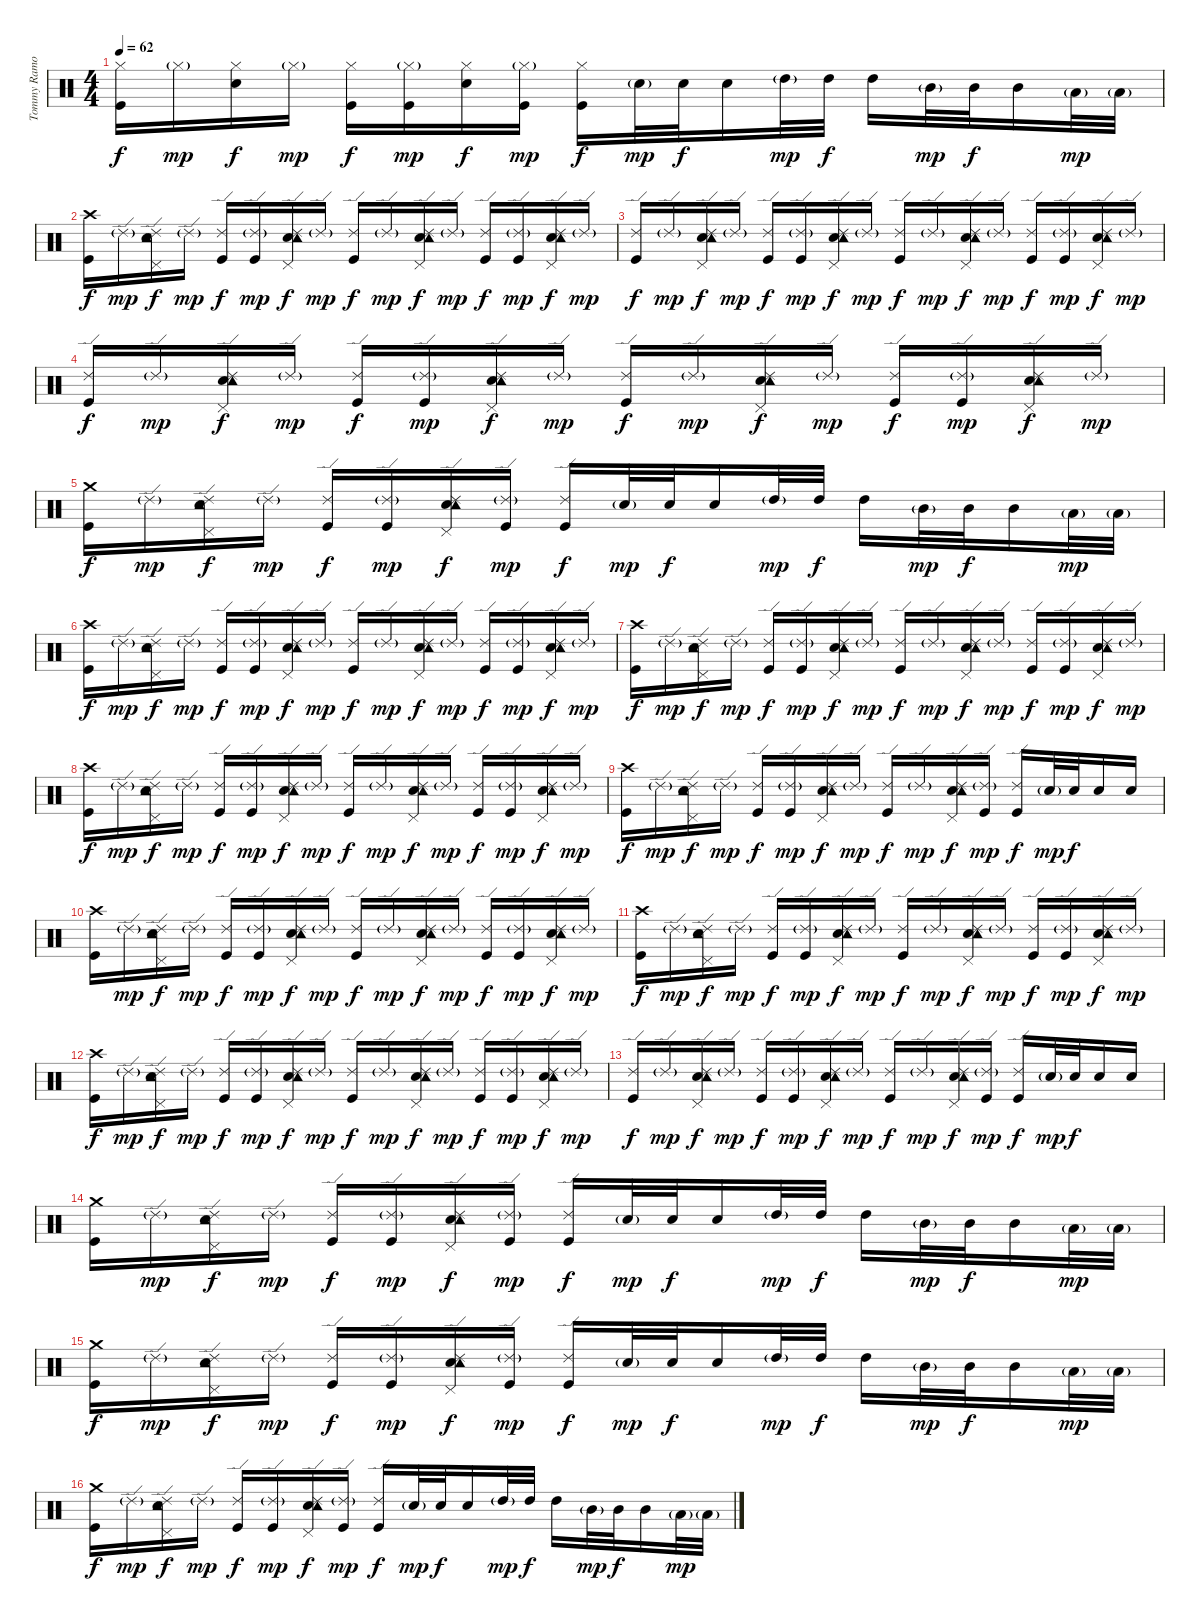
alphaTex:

\track ("Tommy Ramone" "Tommy Ramo") {instrument percussion}
\staff {score}
\articulation defaults
\ts (4 4)
\tempo 62
\clef neutral
\ks c
("Hi-Hat (closed)" "Kick (hit)").16{dy f} "Hi-Hat (closed)"{g}.16{dy mp} ("Hi-Hat (closed)" "Snare (hit) 2").16{dy f} "Hi-Hat (closed)"{g}.16{dy mp} ("Hi-Hat (closed)" "Kick (hit)").16{dy f} ("Hi-Hat (closed)"{g} "Kick (hit)").16{dy mp} ("Hi-Hat (closed)" "Snare (hit) 2").16{dy f} ("Hi-Hat (closed)"{g} "Kick (hit)").16{dy mp} ("Hi-Hat (closed)" "Kick (hit)").16{dy f} "Snare (hit) 2"{g}.32{dy mp} "Snare (hit) 2".32{dy f} "Snare (hit) 2".16 "High Tom (hit)"{g}.32{dy mp} "High Tom (hit)".32{dy f} "High Tom (hit)".16 "Mid Tom (hit)"{g}.32{dy mp} "Mid Tom (hit)".32{dy f} "Mid Tom (hit)".16 "Low Tom (hit)"{g}.32{dy mp} "Low Tom (hit)"{g}.32 |
("Crash high (hit)" "Kick (hit)").16{dy f} "Ride (edge) 2"{g}.16{dy mp} ("Ride (edge) 2" "Snare (hit) 2" "Pedal Hi-Hat (hit)" "Tambourine (hit)").16{dy f} "Ride (edge) 2"{g}.16{dy mp} ("Ride (edge) 2" "Kick (hit)").16{dy f} ("Ride (edge) 2"{g} "Kick (hit)").16{dy mp} ("Ride (edge) 2" "Snare (hit) 2" "Pedal Hi-Hat (hit)" "Tambourine (hit)").16{dy f} "Ride (edge) 2"{g}.16{dy mp} ("Ride (edge) 2" "Kick (hit)").16{dy f} "Ride (edge) 2"{g}.16{dy mp} ("Ride (edge) 2" "Snare (hit) 2" "Pedal Hi-Hat (hit)" "Tambourine (hit)").16{dy f} "Ride (edge) 2"{g}.16{dy mp} ("Ride (edge) 2" "Kick (hit)").16{dy f} ("Ride (edge) 2"{g} "Kick (hit)").16{dy mp} ("Ride (edge) 2" "Snare (hit) 2" "Pedal Hi-Hat (hit)" "Tambourine (hit)").16{dy f} "Ride (edge) 2"{g}.16{dy mp} |
("Ride (edge) 2" "Kick (hit)").16{dy f} "Ride (edge) 2"{g}.16{dy mp} ("Ride (edge) 2" "Snare (hit) 2" "Pedal Hi-Hat (hit)" "Tambourine (hit)").16{dy f} "Ride (edge) 2"{g}.16{dy mp} ("Ride (edge) 2" "Kick (hit)").16{dy f} ("Ride (edge) 2"{g} "Kick (hit)").16{dy mp} ("Ride (edge) 2" "Snare (hit) 2" "Pedal Hi-Hat (hit)" "Tambourine (hit)").16{dy f} "Ride (edge) 2"{g}.16{dy mp} ("Ride (edge) 2" "Kick (hit)").16{dy f} "Ride (edge) 2"{g}.16{dy mp} ("Ride (edge) 2" "Snare (hit) 2" "Pedal Hi-Hat (hit)" "Tambourine (hit)").16{dy f} "Ride (edge) 2"{g}.16{dy mp} ("Ride (edge) 2" "Kick (hit)").16{dy f} ("Ride (edge) 2"{g} "Kick (hit)").16{dy mp} ("Ride (edge) 2" "Snare (hit) 2" "Pedal Hi-Hat (hit)" "Tambourine (hit)").16{dy f} "Ride (edge) 2"{g}.16{dy mp} |
("Ride (edge) 2" "Kick (hit)").16{dy f} "Ride (edge) 2"{g}.16{dy mp} ("Ride (edge) 2" "Snare (hit) 2" "Pedal Hi-Hat (hit)" "Tambourine (hit)").16{dy f} "Ride (edge) 2"{g}.16{dy mp} ("Ride (edge) 2" "Kick (hit)").16{dy f} ("Ride (edge) 2"{g} "Kick (hit)").16{dy mp} ("Ride (edge) 2" "Snare (hit) 2" "Pedal Hi-Hat (hit)" "Tambourine (hit)").16{dy f} "Ride (edge) 2"{g}.16{dy mp} ("Ride (edge) 2" "Kick (hit)").16{dy f} "Ride (edge) 2"{g}.16{dy mp} ("Ride (edge) 2" "Snare (hit) 2" "Pedal Hi-Hat (hit)" "Tambourine (hit)").16{dy f} "Ride (edge) 2"{g}.16{dy mp} ("Ride (edge) 2" "Kick (hit)").16{dy f} ("Ride (edge) 2"{g} "Kick (hit)").16{dy mp} ("Ride (edge) 2" "Snare (hit) 2" "Pedal Hi-Hat (hit)" "Tambourine (hit)").16{dy f} "Ride (edge) 2"{g}.16{dy mp} |
("Crash medium (hit)" "Kick (hit)").16{dy f} "Ride (edge) 2"{g}.16{dy mp} ("Ride (edge) 2" "Snare (hit) 2" "Pedal Hi-Hat (hit)" "Tambourine (hit)").16{dy f} "Ride (edge) 2"{g}.16{dy mp} ("Ride (edge) 2" "Kick (hit)").16{dy f} ("Ride (edge) 2"{g} "Kick (hit)").16{dy mp} ("Ride (edge) 2" "Snare (hit) 2" "Pedal Hi-Hat (hit)" "Tambourine (hit)").16{dy f} ("Ride (edge) 2"{g} "Kick (hit)").16{dy mp} ("Ride (edge) 2" "Kick (hit)").16{dy f} "Snare (hit) 2"{g}.32{dy mp} "Snare (hit) 2".32{dy f} "Snare (hit) 2".16 "High Tom (hit)"{g}.32{dy mp} "High Tom (hit)".32{dy f} "High Tom (hit)".16 "Mid Tom (hit)"{g}.32{dy mp} "Mid Tom (hit)".32{dy f} "Mid Tom (hit)".16 "Low Tom (hit)"{g}.32{dy mp} "Low Tom (hit)"{g}.32 |
("Crash high (hit)" "Kick (hit)").16{dy f} "Ride (edge) 2"{g}.16{dy mp} ("Ride (edge) 2" "Snare (hit) 2" "Pedal Hi-Hat (hit)" "Tambourine (hit)").16{dy f} "Ride (edge) 2"{g}.16{dy mp} ("Ride (edge) 2" "Kick (hit)").16{dy f} ("Ride (edge) 2"{g} "Kick (hit)").16{dy mp} ("Ride (edge) 2" "Snare (hit) 2" "Pedal Hi-Hat (hit)" "Tambourine (hit)").16{dy f} "Ride (edge) 2"{g}.16{dy mp} ("Ride (edge) 2" "Kick (hit)").16{dy f} "Ride (edge) 2"{g}.16{dy mp} ("Ride (edge) 2" "Snare (hit) 2" "Pedal Hi-Hat (hit)" "Tambourine (hit)").16{dy f} "Ride (edge) 2"{g}.16{dy mp} ("Ride (edge) 2" "Kick (hit)").16{dy f} ("Ride (edge) 2"{g} "Kick (hit)").16{dy mp} ("Ride (edge) 2" "Snare (hit) 2" "Pedal Hi-Hat (hit)" "Tambourine (hit)").16{dy f} "Ride (edge) 2"{g}.16{dy mp} |
("Crash high (hit)" "Kick (hit)").16{dy f} "Ride (edge) 2"{g}.16{dy mp} ("Ride (edge) 2" "Snare (hit) 2" "Pedal Hi-Hat (hit)" "Tambourine (hit)").16{dy f} "Ride (edge) 2"{g}.16{dy mp} ("Ride (edge) 2" "Kick (hit)").16{dy f} ("Ride (edge) 2"{g} "Kick (hit)").16{dy mp} ("Ride (edge) 2" "Snare (hit) 2" "Pedal Hi-Hat (hit)" "Tambourine (hit)").16{dy f} "Ride (edge) 2"{g}.16{dy mp} ("Ride (edge) 2" "Kick (hit)").16{dy f} "Ride (edge) 2"{g}.16{dy mp} ("Ride (edge) 2" "Snare (hit) 2" "Pedal Hi-Hat (hit)" "Tambourine (hit)").16{dy f} "Ride (edge) 2"{g}.16{dy mp} ("Ride (edge) 2" "Kick (hit)").16{dy f} ("Ride (edge) 2"{g} "Kick (hit)").16{dy mp} ("Ride (edge) 2" "Snare (hit) 2" "Pedal Hi-Hat (hit)" "Tambourine (hit)").16{dy f} "Ride (edge) 2"{g}.16{dy mp} |
("Crash high (hit)" "Kick (hit)").16{dy f} "Ride (edge) 2"{g}.16{dy mp} ("Ride (edge) 2" "Snare (hit) 2" "Pedal Hi-Hat (hit)" "Tambourine (hit)").16{dy f} "Ride (edge) 2"{g}.16{dy mp} ("Ride (edge) 2" "Kick (hit)").16{dy f} ("Ride (edge) 2"{g} "Kick (hit)").16{dy mp} ("Ride (edge) 2" "Snare (hit) 2" "Pedal Hi-Hat (hit)" "Tambourine (hit)").16{dy f} "Ride (edge) 2"{g}.16{dy mp} ("Ride (edge) 2" "Kick (hit)").16{dy f} "Ride (edge) 2"{g}.16{dy mp} ("Ride (edge) 2" "Snare (hit) 2" "Pedal Hi-Hat (hit)" "Tambourine (hit)").16{dy f} "Ride (edge) 2"{g}.16{dy mp} ("Ride (edge) 2" "Kick (hit)").16{dy f} ("Ride (edge) 2"{g} "Kick (hit)").16{dy mp} ("Ride (edge) 2" "Snare (hit) 2" "Pedal Hi-Hat (hit)" "Tambourine (hit)").16{dy f} "Ride (edge) 2"{g}.16{dy mp} |
("Crash high (hit)" "Kick (hit)").16{dy f} "Ride (edge) 2"{g}.16{dy mp} ("Ride (edge) 2" "Snare (hit) 2" "Pedal Hi-Hat (hit)" "Tambourine (hit)").16{dy f} "Ride (edge) 2"{g}.16{dy mp} ("Ride (edge) 2" "Kick (hit)").16{dy f} ("Ride (edge) 2"{g} "Kick (hit)").16{dy mp} ("Ride (edge) 2" "Snare (hit) 2" "Pedal Hi-Hat (hit)" "Tambourine (hit)").16{dy f} "Ride (edge) 2"{g}.16{dy mp} ("Ride (edge) 2" "Kick (hit)").16{dy f} "Ride (edge) 2"{g}.16{dy mp} ("Ride (edge) 2" "Snare (hit) 2" "Pedal Hi-Hat (hit)" "Tambourine (hit)").16{dy f} ("Ride (edge) 2"{g} "Kick (hit)").16{dy mp} ("Ride (edge) 2" "Kick (hit)").16{dy f} "Snare (hit) 2"{g}.32{dy mp} "Snare (hit) 2".32{dy f} "Snare (hit) 2".16 "Snare (hit) 2".16 |
("Crash high (hit)" "Kick (hit)").16 "Ride (edge) 2"{g}.16{dy mp} ("Ride (edge) 2" "Snare (hit) 2" "Pedal Hi-Hat (hit)" "Tambourine (hit)").16{dy f} "Ride (edge) 2"{g}.16{dy mp} ("Ride (edge) 2" "Kick (hit)").16{dy f} ("Ride (edge) 2"{g} "Kick (hit)").16{dy mp} ("Ride (edge) 2" "Snare (hit) 2" "Pedal Hi-Hat (hit)" "Tambourine (hit)").16{dy f} "Ride (edge) 2"{g}.16{dy mp} ("Ride (edge) 2" "Kick (hit)").16{dy f} "Ride (edge) 2"{g}.16{dy mp} ("Ride (edge) 2" "Snare (hit) 2" "Pedal Hi-Hat (hit)" "Tambourine (hit)").16{dy f} "Ride (edge) 2"{g}.16{dy mp} ("Ride (edge) 2" "Kick (hit)").16{dy f} ("Ride (edge) 2"{g} "Kick (hit)").16{dy mp} ("Ride (edge) 2" "Snare (hit) 2" "Pedal Hi-Hat (hit)" "Tambourine (hit)").16{dy f} "Ride (edge) 2"{g}.16{dy mp} |
("Crash high (hit)" "Kick (hit)").16{dy f} "Ride (edge) 2"{g}.16{dy mp} ("Ride (edge) 2" "Snare (hit) 2" "Pedal Hi-Hat (hit)" "Tambourine (hit)").16{dy f} "Ride (edge) 2"{g}.16{dy mp} ("Ride (edge) 2" "Kick (hit)").16{dy f} ("Ride (edge) 2"{g} "Kick (hit)").16{dy mp} ("Ride (edge) 2" "Snare (hit) 2" "Pedal Hi-Hat (hit)" "Tambourine (hit)").16{dy f} "Ride (edge) 2"{g}.16{dy mp} ("Ride (edge) 2" "Kick (hit)").16{dy f} "Ride (edge) 2"{g}.16{dy mp} ("Ride (edge) 2" "Snare (hit) 2" "Pedal Hi-Hat (hit)" "Tambourine (hit)").16{dy f} "Ride (edge) 2"{g}.16{dy mp} ("Ride (edge) 2" "Kick (hit)").16{dy f} ("Ride (edge) 2"{g} "Kick (hit)").16{dy mp} ("Ride (edge) 2" "Snare (hit) 2" "Pedal Hi-Hat (hit)" "Tambourine (hit)").16{dy f} "Ride (edge) 2"{g}.16{dy mp} |
("Crash high (hit)" "Kick (hit)").16{dy f} "Ride (edge) 2"{g}.16{dy mp} ("Ride (edge) 2" "Snare (hit) 2" "Pedal Hi-Hat (hit)" "Tambourine (hit)").16{dy f} "Ride (edge) 2"{g}.16{dy mp} ("Ride (edge) 2" "Kick (hit)").16{dy f} ("Ride (edge) 2"{g} "Kick (hit)").16{dy mp} ("Ride (edge) 2" "Snare (hit) 2" "Pedal Hi-Hat (hit)" "Tambourine (hit)").16{dy f} "Ride (edge) 2"{g}.16{dy mp} ("Ride (edge) 2" "Kick (hit)").16{dy f} "Ride (edge) 2"{g}.16{dy mp} ("Ride (edge) 2" "Snare (hit) 2" "Pedal Hi-Hat (hit)" "Tambourine (hit)").16{dy f} "Ride (edge) 2"{g}.16{dy mp} ("Ride (edge) 2" "Kick (hit)").16{dy f} ("Ride (edge) 2"{g} "Kick (hit)").16{dy mp} ("Ride (edge) 2" "Snare (hit) 2" "Pedal Hi-Hat (hit)" "Tambourine (hit)").16{dy f} "Ride (edge) 2"{g}.16{dy mp} |
("Ride (edge) 2" "Kick (hit)").16{dy f} "Ride (edge) 2"{g}.16{dy mp} ("Ride (edge) 2" "Snare (hit) 2" "Pedal Hi-Hat (hit)" "Tambourine (hit)").16{dy f} "Ride (edge) 2"{g}.16{dy mp} ("Ride (edge) 2" "Kick (hit)").16{dy f} ("Ride (edge) 2"{g} "Kick (hit)").16{dy mp} ("Ride (edge) 2" "Snare (hit) 2" "Pedal Hi-Hat (hit)" "Tambourine (hit)").16{dy f} "Ride (edge) 2"{g}.16{dy mp} ("Ride (edge) 2" "Kick (hit)").16{dy f} "Ride (edge) 2"{g}.16{dy mp} ("Ride (edge) 2" "Snare (hit) 2" "Pedal Hi-Hat (hit)" "Tambourine (hit)").16{dy f} ("Ride (edge) 2"{g} "Kick (hit)").16{dy mp} ("Ride (edge) 2" "Kick (hit)").16{dy f} "Snare (hit) 2"{g}.32{dy mp} "Snare (hit) 2".32{dy f} "Snare (hit) 2".16 "Snare (hit) 2".16 |
("Crash medium (hit)" "Kick (hit)").16 "Ride (edge) 2"{g}.16{dy mp} ("Ride (edge) 2" "Snare (hit) 2" "Pedal Hi-Hat (hit)" "Tambourine (hit)").16{dy f} "Ride (edge) 2"{g}.16{dy mp} ("Ride (edge) 2" "Kick (hit)").16{dy f} ("Ride (edge) 2"{g} "Kick (hit)").16{dy mp} ("Ride (edge) 2" "Snare (hit) 2" "Pedal Hi-Hat (hit)" "Tambourine (hit)").16{dy f} ("Ride (edge) 2"{g} "Kick (hit)").16{dy mp} ("Ride (edge) 2" "Kick (hit)").16{dy f} "Snare (hit) 2"{g}.32{dy mp} "Snare (hit) 2".32{dy f} "Snare (hit) 2".16 "High Tom (hit)"{g}.32{dy mp} "High Tom (hit)".32{dy f} "High Tom (hit)".16 "Mid Tom (hit)"{g}.32{dy mp} "Mid Tom (hit)".32{dy f} "Mid Tom (hit)".16 "Low Tom (hit)"{g}.32{dy mp} "Low Tom (hit)"{g}.32 |
("Crash medium (hit)" "Kick (hit)").16{dy f} "Ride (edge) 2"{g}.16{dy mp} ("Ride (edge) 2" "Snare (hit) 2" "Pedal Hi-Hat (hit)" "Tambourine (hit)").16{dy f} "Ride (edge) 2"{g}.16{dy mp} ("Ride (edge) 2" "Kick (hit)").16{dy f} ("Ride (edge) 2"{g} "Kick (hit)").16{dy mp} ("Ride (edge) 2" "Snare (hit) 2" "Pedal Hi-Hat (hit)" "Tambourine (hit)").16{dy f} ("Ride (edge) 2"{g} "Kick (hit)").16{dy mp} ("Ride (edge) 2" "Kick (hit)").16{dy f} "Snare (hit) 2"{g}.32{dy mp} "Snare (hit) 2".32{dy f} "Snare (hit) 2".16 "High Tom (hit)"{g}.32{dy mp} "High Tom (hit)".32{dy f} "High Tom (hit)".16 "Mid Tom (hit)"{g}.32{dy mp} "Mid Tom (hit)".32{dy f} "Mid Tom (hit)".16 "Low Tom (hit)"{g}.32{dy mp} "Low Tom (hit)"{g}.32 |
("Crash medium (hit)" "Kick (hit)").16{dy f} "Ride (edge) 2"{g}.16{dy mp} ("Ride (edge) 2" "Snare (hit) 2" "Pedal Hi-Hat (hit)" "Tambourine (hit)").16{dy f} "Ride (edge) 2"{g}.16{dy mp} ("Ride (edge) 2" "Kick (hit)").16{dy f} ("Ride (edge) 2"{g} "Kick (hit)").16{dy mp} ("Ride (edge) 2" "Snare (hit) 2" "Pedal Hi-Hat (hit)" "Tambourine (hit)").16{dy f} ("Ride (edge) 2"{g} "Kick (hit)").16{dy mp} ("Ride (edge) 2" "Kick (hit)").16{dy f} "Snare (hit) 2"{g}.32{dy mp} "Snare (hit) 2".32{dy f} "Snare (hit) 2".16 "High Tom (hit)"{g}.32{dy mp} "High Tom (hit)".32{dy f} "High Tom (hit)".16 "Mid Tom (hit)"{g}.32{dy mp} "Mid Tom (hit)".32{dy f} "Mid Tom (hit)".16 "Low Tom (hit)"{g}.32{dy mp} "Low Tom (hit)"{g}.32
